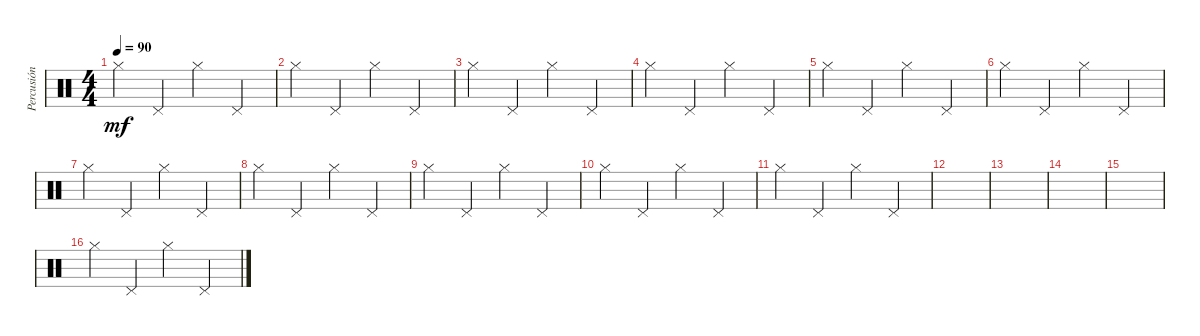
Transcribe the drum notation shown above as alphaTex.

\track ("Percusión" "Percusión") {instrument percussion}
\staff {score}
\articulation defaults
\ts (4 4)
\tempo 90
\clef neutral
\ks c "Hi-Hat (closed)".4{dy mf} "Pedal Hi-Hat (hit)".4 "Hi-Hat (closed)".4 "Pedal Hi-Hat (hit)".4
|
"Hi-Hat (closed)".4 "Pedal Hi-Hat (hit)".4 "Hi-Hat (closed)".4 "Pedal Hi-Hat (hit)".4 |
"Hi-Hat (closed)".4 "Pedal Hi-Hat (hit)".4 "Hi-Hat (closed)".4 "Pedal Hi-Hat (hit)".4 |
"Hi-Hat (closed)".4 "Pedal Hi-Hat (hit)".4 "Hi-Hat (closed)".4 "Pedal Hi-Hat (hit)".4 |
"Hi-Hat (closed)".4 "Pedal Hi-Hat (hit)".4 "Hi-Hat (closed)".4 "Pedal Hi-Hat (hit)".4 |
"Hi-Hat (closed)".4 "Pedal Hi-Hat (hit)".4 "Hi-Hat (closed)".4 "Pedal Hi-Hat (hit)".4 |
"Hi-Hat (closed)".4 "Pedal Hi-Hat (hit)".4 "Hi-Hat (closed)".4 "Pedal Hi-Hat (hit)".4 |
"Hi-Hat (closed)".4 "Pedal Hi-Hat (hit)".4 "Hi-Hat (closed)".4 "Pedal Hi-Hat (hit)".4 |
"Hi-Hat (closed)".4 "Pedal Hi-Hat (hit)".4 "Hi-Hat (closed)".4 "Pedal Hi-Hat (hit)".4 |
"Hi-Hat (closed)".4 "Pedal Hi-Hat (hit)".4 "Hi-Hat (closed)".4 "Pedal Hi-Hat (hit)".4 |
"Hi-Hat (closed)".4 "Pedal Hi-Hat (hit)".4 "Hi-Hat (closed)".4 "Pedal Hi-Hat (hit)".4 |
|
|
|
|
"Hi-Hat (closed)".4 "Pedal Hi-Hat (hit)".4 "Hi-Hat (closed)".4 "Pedal Hi-Hat (hit)".4
